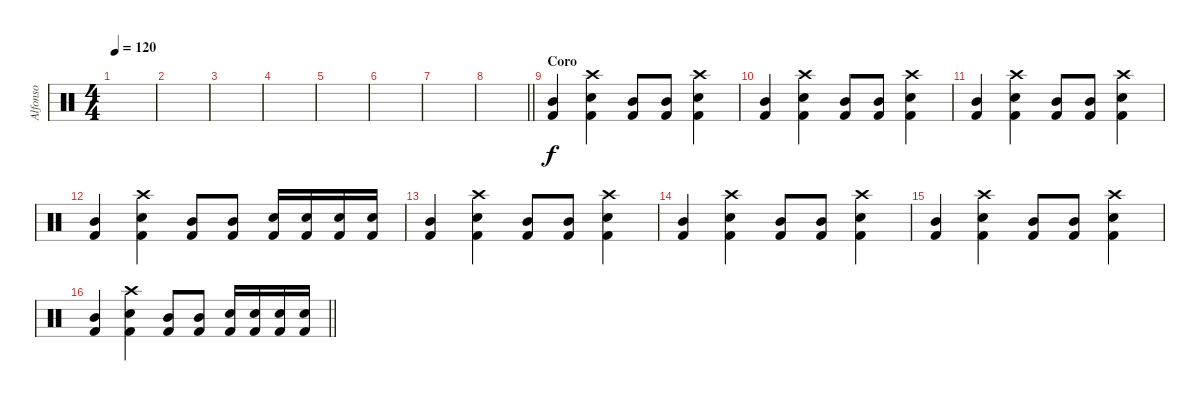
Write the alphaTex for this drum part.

\track ("Alfonso" "Alfonso") {instrument percussion}
\staff {score}
\articulation defaults
\ts (4 4)
\tempo 120
\clef neutral
\ks c
|
|
|
|
|
|
|
\barLineRight lightlight
|
\section ("" "Coro")
("Kick (hit) 2" "Mid Tom (hit)").4 ("Kick (hit) 2" "Snare (hit) 2" "Crash high (hit)").4 ("Kick (hit) 2" "Mid Tom (hit)").8 ("Kick (hit) 2" "Mid Tom (hit)").8 ("Kick (hit) 2" "Snare (hit) 2" "Crash high (hit)").4 |
("Kick (hit) 2" "Mid Tom (hit)").4 ("Kick (hit) 2" "Snare (hit) 2" "Crash high (hit)").4 ("Kick (hit) 2" "Mid Tom (hit)").8 ("Kick (hit) 2" "Mid Tom (hit)").8 ("Kick (hit) 2" "Snare (hit) 2" "Crash high (hit)").4 |
("Kick (hit) 2" "Mid Tom (hit)").4 ("Kick (hit) 2" "Snare (hit) 2" "Crash high (hit)").4 ("Kick (hit) 2" "Mid Tom (hit)").8 ("Kick (hit) 2" "Mid Tom (hit)").8 ("Kick (hit) 2" "Snare (hit) 2" "Crash high (hit)").4 |
("Kick (hit) 2" "Mid Tom (hit)").4 ("Kick (hit) 2" "Snare (hit) 2" "Crash high (hit)").4 ("Kick (hit) 2" "Mid Tom (hit)").8 ("Kick (hit) 2" "Mid Tom (hit)").8 ("Kick (hit) 2" "Snare (hit) 2").16 ("Kick (hit) 2" "Snare (hit) 2").16 ("Kick (hit) 2" "Snare (hit) 2").16 ("Kick (hit) 2" "Snare (hit) 2").16 |
("Kick (hit) 2" "Mid Tom (hit)").4 ("Kick (hit) 2" "Snare (hit) 2" "Crash high (hit)").4 ("Kick (hit) 2" "Mid Tom (hit)").8 ("Kick (hit) 2" "Mid Tom (hit)").8 ("Kick (hit) 2" "Snare (hit) 2" "Crash high (hit)").4 |
("Kick (hit) 2" "Mid Tom (hit)").4 ("Kick (hit) 2" "Snare (hit) 2" "Crash high (hit)").4 ("Kick (hit) 2" "Mid Tom (hit)").8 ("Kick (hit) 2" "Mid Tom (hit)").8 ("Kick (hit) 2" "Snare (hit) 2" "Crash high (hit)").4 |
("Kick (hit) 2" "Mid Tom (hit)").4 ("Kick (hit) 2" "Snare (hit) 2" "Crash high (hit)").4 ("Kick (hit) 2" "Mid Tom (hit)").8 ("Kick (hit) 2" "Mid Tom (hit)").8 ("Kick (hit) 2" "Snare (hit) 2" "Crash high (hit)").4 |
\barLineRight lightlight
("Kick (hit) 2" "Mid Tom (hit)").4 ("Kick (hit) 2" "Snare (hit) 2" "Crash high (hit)").4 ("Kick (hit) 2" "Mid Tom (hit)").8 ("Kick (hit) 2" "Mid Tom (hit)").8 ("Kick (hit) 2" "Snare (hit) 2").16 ("Kick (hit) 2" "Snare (hit) 2").16 ("Kick (hit) 2" "Snare (hit) 2").16 ("Kick (hit) 2" "Snare (hit) 2").16
